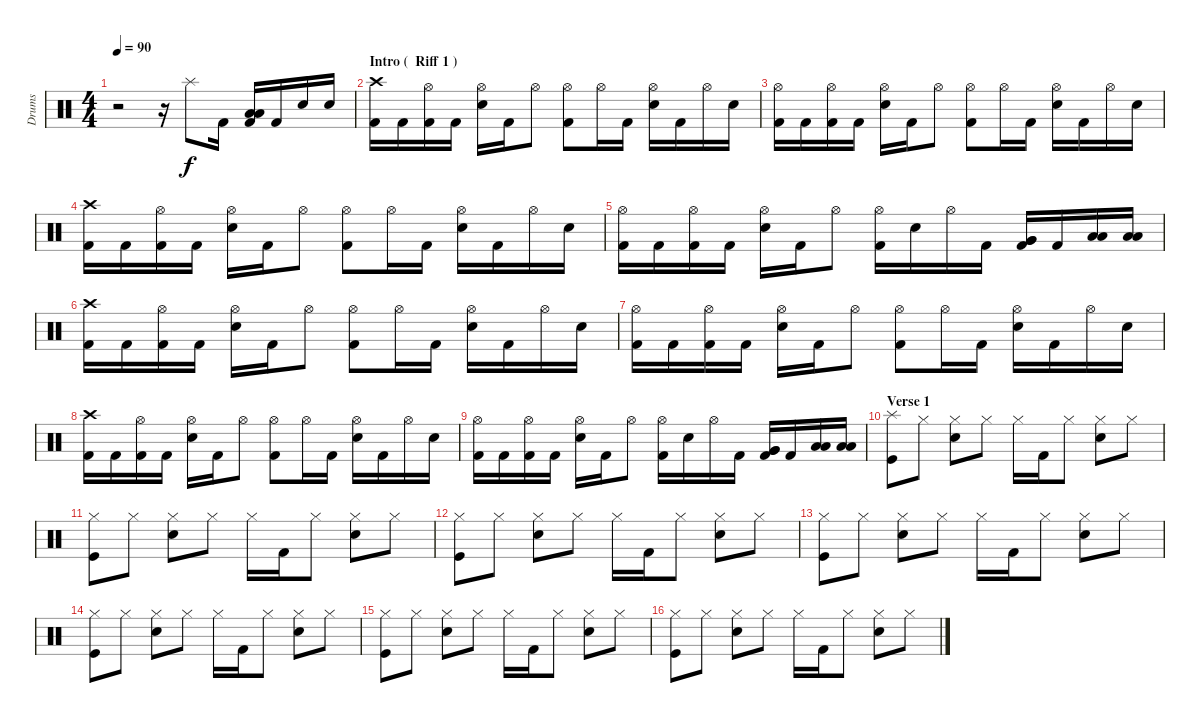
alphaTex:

\track ("Drums" "Drums") {instrument percussion}
\staff {score}
\articulation defaults
\ts (4 4)
\tempo 90
\clef neutral
\ks c
r.2{dy f} r.16 "Splash (hit)".8 "Kick (hit) 2".16 ("Low Floor Tom (hit)" "Low Floor Tom (hit)" "Kick (hit) 2").16 "Kick (hit) 2".16 "Electric Snare (hit)".16 "Electric Snare (hit)".16 |
\section ("" "Intro (  Riff 1 )")
("Crash high (hit)" "Kick (hit) 2").16 "Kick (hit) 2".16 ("Hi-Hat (open)" "Kick (hit) 2").16 "Kick (hit) 2".16 ("Hi-Hat (open)" "Electric Snare (hit)").16 "Kick (hit) 2".16 "Hi-Hat (open)".8 ("Hi-Hat (open)" "Kick (hit) 2").8 "Hi-Hat (open)".16 "Kick (hit) 2".16 ("Hi-Hat (open)" "Electric Snare (hit)").16 "Kick (hit) 2".16 "Hi-Hat (open)".16 "Electric Snare (hit)".16 |
("Hi-Hat (open)" "Kick (hit) 2").16 "Kick (hit) 2".16 ("Hi-Hat (open)" "Kick (hit) 2").16 "Kick (hit) 2".16 ("Hi-Hat (open)" "Electric Snare (hit)").16 "Kick (hit) 2".16 "Hi-Hat (open)".8 ("Hi-Hat (open)" "Kick (hit) 2").8 "Hi-Hat (open)".16 "Kick (hit) 2".16 ("Hi-Hat (open)" "Electric Snare (hit)").16 "Kick (hit) 2".16 "Hi-Hat (open)".16 "Electric Snare (hit)".16 |
("Crash high (hit)" "Kick (hit) 2").16 "Kick (hit) 2".16 ("Hi-Hat (open)" "Kick (hit) 2").16 "Kick (hit) 2".16 ("Hi-Hat (open)" "Electric Snare (hit)").16 "Kick (hit) 2".16 "Hi-Hat (open)".8 ("Hi-Hat (open)" "Kick (hit) 2").8 "Hi-Hat (open)".16 "Kick (hit) 2".16 ("Hi-Hat (open)" "Electric Snare (hit)").16 "Kick (hit) 2".16 "Hi-Hat (open)".16 "Electric Snare (hit)".16 |
("Hi-Hat (open)" "Kick (hit) 2").16 "Kick (hit) 2".16 ("Hi-Hat (open)" "Kick (hit) 2").16 "Kick (hit) 2".16 ("Hi-Hat (open)" "Electric Snare (hit)").16 "Kick (hit) 2".16 "Hi-Hat (open)".8 ("Hi-Hat (open)" "Kick (hit) 2").16 "Electric Snare (hit)".16 "Hi-Hat (open)".16 "Kick (hit) 2".16 ("Very Low Tom (hit)" "Very Low Tom (hit)" "Kick (hit) 2").16 "Kick (hit) 2".16 ("Low Floor Tom (hit)" "Low Floor Tom (hit)").16 ("Low Floor Tom (hit)" "Low Floor Tom (hit)").16 |
("Crash high (hit)" "Kick (hit) 2").16 "Kick (hit) 2".16 ("Hi-Hat (open)" "Kick (hit) 2").16 "Kick (hit) 2".16 ("Hi-Hat (open)" "Electric Snare (hit)").16 "Kick (hit) 2".16 "Hi-Hat (open)".8 ("Hi-Hat (open)" "Kick (hit) 2").8 "Hi-Hat (open)".16 "Kick (hit) 2".16 ("Hi-Hat (open)" "Electric Snare (hit)").16 "Kick (hit) 2".16 "Hi-Hat (open)".16 "Electric Snare (hit)".16 |
("Hi-Hat (open)" "Kick (hit) 2").16 "Kick (hit) 2".16 ("Hi-Hat (open)" "Kick (hit) 2").16 "Kick (hit) 2".16 ("Hi-Hat (open)" "Electric Snare (hit)").16 "Kick (hit) 2".16 "Hi-Hat (open)".8 ("Hi-Hat (open)" "Kick (hit) 2").8 "Hi-Hat (open)".16 "Kick (hit) 2".16 ("Hi-Hat (open)" "Electric Snare (hit)").16 "Kick (hit) 2".16 "Hi-Hat (open)".16 "Electric Snare (hit)".16 |
("Crash high (hit)" "Kick (hit) 2").16 "Kick (hit) 2".16 ("Hi-Hat (open)" "Kick (hit) 2").16 "Kick (hit) 2".16 ("Hi-Hat (open)" "Electric Snare (hit)").16 "Kick (hit) 2".16 "Hi-Hat (open)".8 ("Hi-Hat (open)" "Kick (hit) 2").8 "Hi-Hat (open)".16 "Kick (hit) 2".16 ("Hi-Hat (open)" "Electric Snare (hit)").16 "Kick (hit) 2".16 "Hi-Hat (open)".16 "Electric Snare (hit)".16 |
("Hi-Hat (open)" "Kick (hit) 2").16 "Kick (hit) 2".16 ("Hi-Hat (open)" "Kick (hit) 2").16 "Kick (hit) 2".16 ("Hi-Hat (open)" "Electric Snare (hit)").16 "Kick (hit) 2".16 "Hi-Hat (open)".8 ("Hi-Hat (open)" "Kick (hit) 2").16 "Electric Snare (hit)".16 "Hi-Hat (open)".16 "Kick (hit) 2".16 ("Very Low Tom (hit)" "Very Low Tom (hit)" "Kick (hit) 2").16 "Kick (hit) 2".16 ("Low Floor Tom (hit)" "Low Floor Tom (hit)").16 ("Low Floor Tom (hit)" "Low Floor Tom (hit)").16 |
\section ("" "Verse 1")
("Splash (hit)" "Kick (hit)").8{volume 10} "Hi-Hat (closed)".8 ("Hi-Hat (closed)" "Snare (hit) 2").8 "Hi-Hat (closed)".8 "Hi-Hat (closed)".16 "Kick (hit) 2".16 "Hi-Hat (closed)".8 ("Hi-Hat (closed)" "Snare (hit) 2").8 "Hi-Hat (closed)".8 |
("Hi-Hat (closed)" "Kick (hit)").8{volume 10} "Hi-Hat (closed)".8 ("Hi-Hat (closed)" "Snare (hit) 2").8 "Hi-Hat (closed)".8 "Hi-Hat (closed)".16 "Kick (hit) 2".16 "Hi-Hat (closed)".8 ("Hi-Hat (closed)" "Snare (hit) 2").8 "Hi-Hat (closed)".8 |
("Hi-Hat (closed)" "Kick (hit)").8{volume 10} "Hi-Hat (closed)".8 ("Hi-Hat (closed)" "Snare (hit) 2").8 "Hi-Hat (closed)".8 "Hi-Hat (closed)".16 "Kick (hit) 2".16 "Hi-Hat (closed)".8 ("Hi-Hat (closed)" "Snare (hit) 2").8 "Hi-Hat (closed)".8 |
("Hi-Hat (closed)" "Kick (hit)").8{volume 10} "Hi-Hat (closed)".8 ("Hi-Hat (closed)" "Snare (hit) 2").8 "Hi-Hat (closed)".8 "Hi-Hat (closed)".16 "Kick (hit) 2".16 "Hi-Hat (closed)".8 ("Hi-Hat (closed)" "Snare (hit) 2").8 "Hi-Hat (closed)".8 |
("Hi-Hat (closed)" "Kick (hit)").8{volume 10} "Hi-Hat (closed)".8 ("Hi-Hat (closed)" "Snare (hit) 2").8 "Hi-Hat (closed)".8 "Hi-Hat (closed)".16 "Kick (hit) 2".16 "Hi-Hat (closed)".8 ("Hi-Hat (closed)" "Snare (hit) 2").8 "Hi-Hat (closed)".8 |
("Hi-Hat (closed)" "Kick (hit)").8{volume 10} "Hi-Hat (closed)".8 ("Hi-Hat (closed)" "Snare (hit) 2").8 "Hi-Hat (closed)".8 "Hi-Hat (closed)".16 "Kick (hit) 2".16 "Hi-Hat (closed)".8 ("Hi-Hat (closed)" "Snare (hit) 2").8 "Hi-Hat (closed)".8 |
("Hi-Hat (closed)" "Kick (hit)").8{volume 10} "Hi-Hat (closed)".8 ("Hi-Hat (closed)" "Snare (hit) 2").8 "Hi-Hat (closed)".8 "Hi-Hat (closed)".16 "Kick (hit) 2".16 "Hi-Hat (closed)".8 ("Hi-Hat (closed)" "Snare (hit) 2").8 "Hi-Hat (closed)".8
